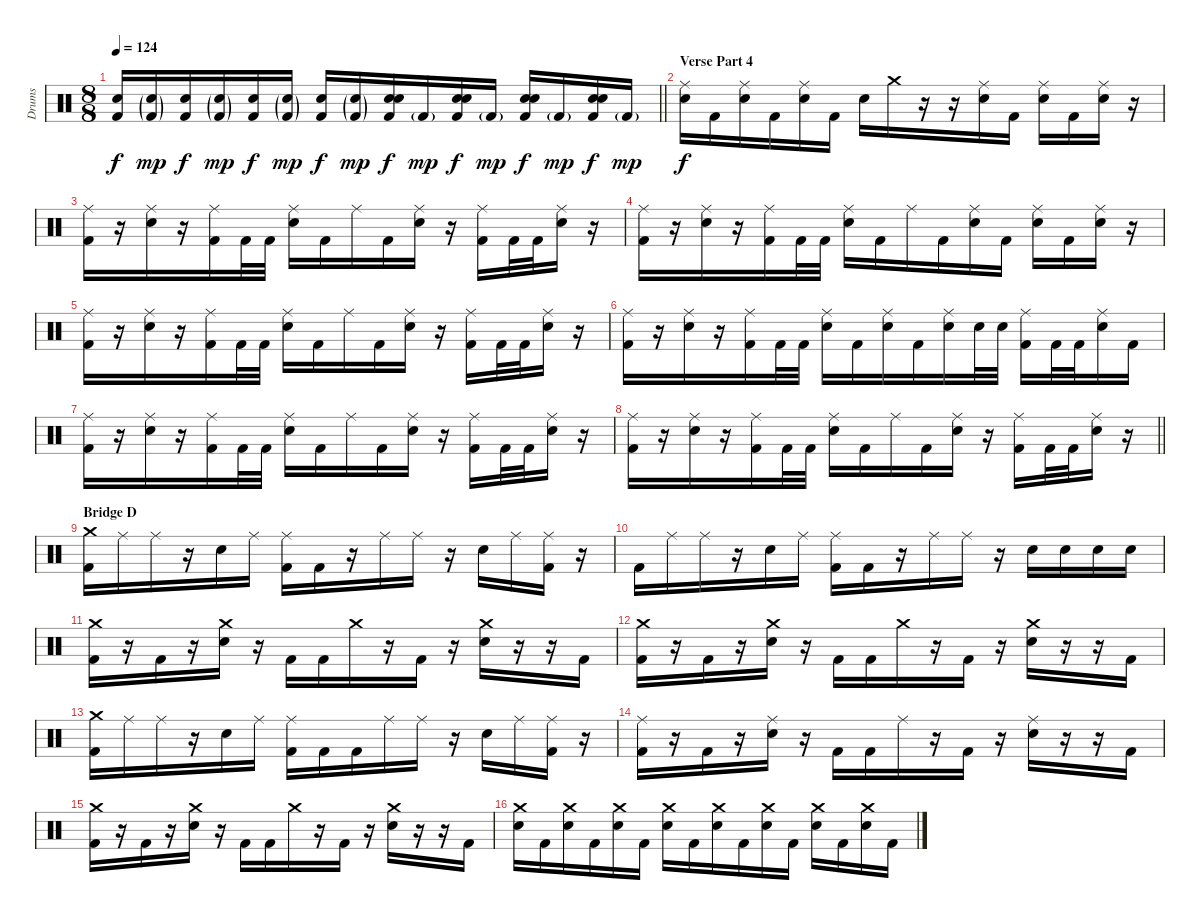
\track ("Drums" "Drums") {instrument percussion}
\staff {score}
\articulation defaults
\ts (8 8)
\tempo 124
\clef neutral
\barLineRight lightlight
\ks c
("Kick (hit) 2" "Electric Snare (hit)").16{dy f} ("Kick (hit) 2"{g} "Electric Snare (hit)"{g}).16{dy mp} ("Kick (hit) 2" "Electric Snare (hit)").16{dy f} ("Kick (hit) 2"{g} "Electric Snare (hit)"{g}).16{dy mp} ("Kick (hit) 2" "Electric Snare (hit)").16{dy f} ("Kick (hit) 2"{g} "Electric Snare (hit)"{g}).16{dy mp} ("Kick (hit) 2" "Electric Snare (hit)").16{dy f} ("Kick (hit) 2"{g} "Electric Snare (hit)"{g}).16{dy mp} ("Kick (hit) 2" "Snare (hit) 2" "Electric Snare (hit)").16{dy f} "Kick (hit) 2"{g}.16{dy mp} ("Kick (hit) 2" "Snare (hit) 2" "Electric Snare (hit)").16{dy f} "Kick (hit) 2"{g}.16{dy mp} ("Kick (hit) 2" "Snare (hit) 2" "Electric Snare (hit)").16{dy f} "Kick (hit) 2"{g}.16{dy mp} ("Kick (hit) 2" "Snare (hit) 2" "Electric Snare (hit)").16{dy f} "Kick (hit) 2"{g}.16{dy mp} |
\section ("" "Verse Part 4")
("Ride (middle)" "Electric Snare (hit)").16{dy f} "Kick (hit) 2".16 ("Ride (middle)" "Electric Snare (hit)").16 "Kick (hit) 2".16 ("Ride (middle)" "Electric Snare (hit)").16 "Kick (hit) 2".16 "Electric Snare (hit)".16 "Crash medium (hit)".16 r.16 r.16 ("Ride (middle)" "Electric Snare (hit)").16 "Kick (hit) 2".16 ("Ride (middle)" "Electric Snare (hit)").16 "Kick (hit) 2".16 ("Ride (middle)" "Electric Snare (hit)").16 r.16 |
("Ride (middle)" "Kick (hit) 2").16 r.16 ("Ride (middle)" "Electric Snare (hit)").16 r.16 ("Ride (middle)" "Kick (hit) 2").16 "Kick (hit) 2".32 "Kick (hit) 2".32 ("Ride (middle)" "Electric Snare (hit)").16 "Kick (hit) 2".16 "Ride (middle)".16 "Kick (hit) 2".16 ("Ride (middle)" "Electric Snare (hit)").16 r.16 ("Ride (middle)" "Kick (hit) 2").16 "Kick (hit) 2".32 "Kick (hit) 2".32 ("Ride (middle)" "Electric Snare (hit)").16 r.16 |
("Ride (middle)" "Kick (hit) 2").16 r.16 ("Ride (middle)" "Electric Snare (hit)").16 r.16 ("Ride (middle)" "Kick (hit) 2").16 "Kick (hit) 2".32 "Kick (hit) 2".32 ("Ride (middle)" "Electric Snare (hit)").16 "Kick (hit) 2".16 "Ride (middle)".16 "Kick (hit) 2".16 ("Ride (middle)" "Electric Snare (hit)").16 "Kick (hit) 2".16 ("Ride (middle)" "Electric Snare (hit)").16 "Kick (hit) 2".16 ("Ride (middle)" "Electric Snare (hit)").16 r.16 |
("Ride (middle)" "Kick (hit) 2").16 r.16 ("Ride (middle)" "Electric Snare (hit)").16 r.16 ("Ride (middle)" "Kick (hit) 2").16 "Kick (hit) 2".32 "Kick (hit) 2".32 ("Ride (middle)" "Electric Snare (hit)").16 "Kick (hit) 2".16 "Ride (middle)".16 "Kick (hit) 2".16 ("Ride (middle)" "Electric Snare (hit)").16 r.16 ("Ride (middle)" "Kick (hit) 2").16 "Kick (hit) 2".32 "Kick (hit) 2".32 ("Ride (middle)" "Electric Snare (hit)").16 r.16 |
("Ride (middle)" "Kick (hit) 2").16 r.16 ("Ride (middle)" "Electric Snare (hit)").16 r.16 ("Ride (middle)" "Kick (hit) 2").16 "Kick (hit) 2".32 "Kick (hit) 2".32 ("Ride (middle)" "Electric Snare (hit)").16 "Kick (hit) 2".16 ("Ride (middle)" "Electric Snare (hit)").16 "Kick (hit) 2".16 ("Ride (middle)" "Electric Snare (hit)").16 "Electric Snare (hit)".32 "Electric Snare (hit)".32 ("Ride (middle)" "Kick (hit) 2").16 "Kick (hit) 2".32 "Kick (hit) 2".32 ("Ride (middle)" "Electric Snare (hit)").16 "Kick (hit) 2".16 |
("Ride (middle)" "Kick (hit) 2").16 r.16 ("Ride (middle)" "Electric Snare (hit)").16 r.16 ("Ride (middle)" "Kick (hit) 2").16 "Kick (hit) 2".32 "Kick (hit) 2".32 ("Ride (middle)" "Electric Snare (hit)").16 "Kick (hit) 2".16 "Ride (middle)".16 "Kick (hit) 2".16 ("Ride (middle)" "Electric Snare (hit)").16 r.16 ("Ride (middle)" "Kick (hit) 2").16 "Kick (hit) 2".32 "Kick (hit) 2".32 ("Ride (middle)" "Electric Snare (hit)").16 r.16 |
\barLineRight lightlight
("Ride (middle)" "Kick (hit) 2").16 r.16 ("Ride (middle)" "Electric Snare (hit)").16 r.16 ("Ride (middle)" "Kick (hit) 2").16 "Kick (hit) 2".32 "Kick (hit) 2".32 ("Ride (middle)" "Electric Snare (hit)").16 "Kick (hit) 2".16 "Ride (middle)".16 "Kick (hit) 2".16 ("Ride (middle)" "Electric Snare (hit)").16 r.16 ("Ride (middle)" "Kick (hit) 2").16 "Kick (hit) 2".32 "Kick (hit) 2".32 ("Ride (middle)" "Electric Snare (hit)").16 r.16 |
\section ("" "Bridge D")
("Crash medium (hit)" "Kick (hit) 2").16 "Ride (middle)".16 "Ride (middle)".16 r.16 "Electric Snare (hit)".16 "Ride (middle)".16 ("Ride (middle)" "Kick (hit) 2").16 "Kick (hit) 2".16 r.16 "Ride (middle)".16 "Ride (middle)".16 r.16 "Electric Snare (hit)".16 "Ride (middle)".16 ("Ride (middle)" "Kick (hit) 2").16 r.16 |
"Kick (hit) 2".16 "Ride (middle)".16 "Ride (middle)".16 r.16 "Electric Snare (hit)".16 "Ride (middle)".16 ("Ride (middle)" "Kick (hit) 2").16 "Kick (hit) 2".16 r.16 "Ride (middle)".16 "Ride (middle)".16 r.16 "Electric Snare (hit)".16 "Electric Snare (hit)".16 "Electric Snare (hit)".16 "Electric Snare (hit)".16 |
("Crash medium (hit)" "Kick (hit) 2").16 r.16 "Kick (hit) 2".16 r.16 ("Crash medium (hit)" "Electric Snare (hit)").16 r.16 "Kick (hit) 2".16 "Kick (hit) 2".16 "Crash medium (hit)".16 r.16 "Kick (hit) 2".16 r.16 ("Crash medium (hit)" "Electric Snare (hit)").16 r.16 r.16 "Kick (hit) 2".16 |
("Crash medium (hit)" "Kick (hit) 2").16 r.16 "Kick (hit) 2".16 r.16 ("Crash medium (hit)" "Electric Snare (hit)").16 r.16 "Kick (hit) 2".16 "Kick (hit) 2".16 "Crash medium (hit)".16 r.16 "Kick (hit) 2".16 r.16 ("Crash medium (hit)" "Electric Snare (hit)").16 r.16 r.16 "Kick (hit) 2".16 |
("Crash medium (hit)" "Kick (hit) 2").16 "Ride (middle)".16 "Ride (middle)".16 r.16 "Electric Snare (hit)".16 "Ride (middle)".16 ("Ride (middle)" "Kick (hit) 2").16 "Kick (hit) 2".16 "Kick (hit) 2".16 "Ride (middle)".16 "Ride (middle)".16 r.16 "Electric Snare (hit)".16 "Ride (middle)".16 ("Ride (middle)" "Kick (hit) 2").16 r.16 |
("Ride (middle)" "Kick (hit) 2").16 r.16 "Kick (hit) 2".16 r.16 ("Ride (middle)" "Electric Snare (hit)").16 r.16 "Kick (hit) 2".16 "Kick (hit) 2".16 "Ride (middle)".16 r.16 "Kick (hit) 2".16 r.16 ("Ride (middle)" "Electric Snare (hit)").16 r.16 r.16 "Kick (hit) 2".16 |
("Crash medium (hit)" "Kick (hit) 2").16 r.16 "Kick (hit) 2".16 r.16 ("Crash medium (hit)" "Electric Snare (hit)").16 r.16 "Kick (hit) 2".16 "Kick (hit) 2".16 "Crash medium (hit)".16 r.16 "Kick (hit) 2".16 r.16 ("Crash medium (hit)" "Electric Snare (hit)").16 r.16 r.16 "Kick (hit) 2".16 |
("Crash medium (hit)" "Electric Snare (hit)").16 "Kick (hit) 2".16 ("Crash medium (hit)" "Electric Snare (hit)").16 "Kick (hit) 2".16 ("Crash medium (hit)" "Electric Snare (hit)").16 "Kick (hit) 2".16 ("Crash medium (hit)" "Electric Snare (hit)").16 "Kick (hit) 2".16 ("Crash medium (hit)" "Electric Snare (hit)").16 "Kick (hit) 2".16 ("Crash medium (hit)" "Electric Snare (hit)").16 "Kick (hit) 2".16 ("Crash medium (hit)" "Electric Snare (hit)").16 "Kick (hit) 2".16 ("Crash medium (hit)" "Electric Snare (hit)").16 "Kick (hit) 2".16
